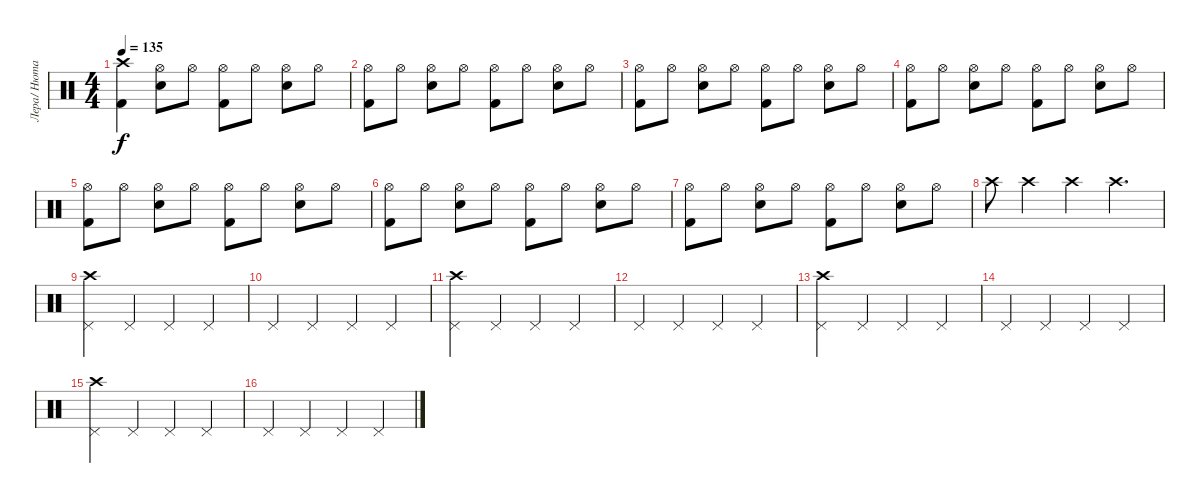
\track ("Лера/ Нюта" "Лера/ Нюта") {instrument percussion}
\staff {score}
\articulation defaults
\ts (4 4)
\tempo 135
\clef neutral
\ks c
("Crash high (hit)" "Kick (hit) 2").4{dy f} ("Hi-Hat (open)" "Electric Snare (hit)").8 "Hi-Hat (open)".8 ("Hi-Hat (open)" "Kick (hit) 2").8 "Hi-Hat (open)".8 ("Hi-Hat (open)" "Electric Snare (hit)").8 "Hi-Hat (open)".8 |
("Hi-Hat (open)" "Kick (hit) 2").8 "Hi-Hat (open)".8 ("Hi-Hat (open)" "Electric Snare (hit)").8 "Hi-Hat (open)".8 ("Hi-Hat (open)" "Kick (hit) 2").8 "Hi-Hat (open)".8 ("Hi-Hat (open)" "Electric Snare (hit)").8 "Hi-Hat (open)".8 |
("Hi-Hat (open)" "Kick (hit) 2").8 "Hi-Hat (open)".8 ("Hi-Hat (open)" "Electric Snare (hit)").8 "Hi-Hat (open)".8 ("Hi-Hat (open)" "Kick (hit) 2").8 "Hi-Hat (open)".8 ("Hi-Hat (open)" "Electric Snare (hit)").8 "Hi-Hat (open)".8 |
("Hi-Hat (open)" "Kick (hit) 2").8 "Hi-Hat (open)".8 ("Hi-Hat (open)" "Electric Snare (hit)").8 "Hi-Hat (open)".8 ("Hi-Hat (open)" "Kick (hit) 2").8 "Hi-Hat (open)".8 ("Hi-Hat (open)" "Electric Snare (hit)").8 "Hi-Hat (open)".8 |
("Hi-Hat (open)" "Kick (hit) 2").8 "Hi-Hat (open)".8 ("Hi-Hat (open)" "Electric Snare (hit)").8 "Hi-Hat (open)".8 ("Hi-Hat (open)" "Kick (hit) 2").8 "Hi-Hat (open)".8 ("Hi-Hat (open)" "Electric Snare (hit)").8 "Hi-Hat (open)".8 |
("Hi-Hat (open)" "Kick (hit) 2").8 "Hi-Hat (open)".8 ("Hi-Hat (open)" "Electric Snare (hit)").8 "Hi-Hat (open)".8 ("Hi-Hat (open)" "Kick (hit) 2").8 "Hi-Hat (open)".8 ("Hi-Hat (open)" "Electric Snare (hit)").8 "Hi-Hat (open)".8 |
("Hi-Hat (open)" "Kick (hit) 2").8 "Hi-Hat (open)".8 ("Hi-Hat (open)" "Electric Snare (hit)").8 "Hi-Hat (open)".8 ("Hi-Hat (open)" "Kick (hit) 2").8 "Hi-Hat (open)".8 ("Hi-Hat (open)" "Electric Snare (hit)").8 "Hi-Hat (open)".8 |
"Crash high (hit)".8 "Crash high (hit)".4 "Crash high (hit)".4 "Crash high (hit)".4{d} |
("Crash high (hit)" "Pedal Hi-Hat (hit)").4 "Pedal Hi-Hat (hit)".4 "Pedal Hi-Hat (hit)".4 "Pedal Hi-Hat (hit)".4 |
"Pedal Hi-Hat (hit)".4 "Pedal Hi-Hat (hit)".4 "Pedal Hi-Hat (hit)".4 "Pedal Hi-Hat (hit)".4 |
("Crash high (hit)" "Pedal Hi-Hat (hit)").4 "Pedal Hi-Hat (hit)".4 "Pedal Hi-Hat (hit)".4 "Pedal Hi-Hat (hit)".4 |
"Pedal Hi-Hat (hit)".4 "Pedal Hi-Hat (hit)".4 "Pedal Hi-Hat (hit)".4 "Pedal Hi-Hat (hit)".4 |
("Crash high (hit)" "Pedal Hi-Hat (hit)").4 "Pedal Hi-Hat (hit)".4 "Pedal Hi-Hat (hit)".4 "Pedal Hi-Hat (hit)".4 |
"Pedal Hi-Hat (hit)".4 "Pedal Hi-Hat (hit)".4 "Pedal Hi-Hat (hit)".4 "Pedal Hi-Hat (hit)".4 |
("Crash high (hit)" "Pedal Hi-Hat (hit)").4 "Pedal Hi-Hat (hit)".4 "Pedal Hi-Hat (hit)".4 "Pedal Hi-Hat (hit)".4 |
"Pedal Hi-Hat (hit)".4 "Pedal Hi-Hat (hit)".4 "Pedal Hi-Hat (hit)".4 "Pedal Hi-Hat (hit)".4
